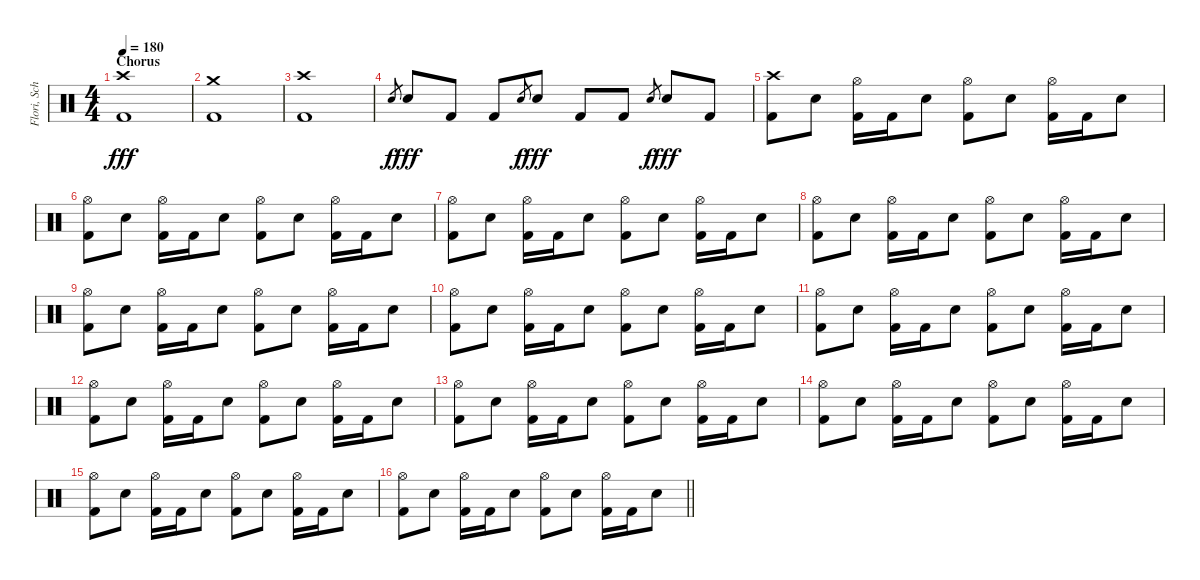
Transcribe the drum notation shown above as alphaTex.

\track ("Flori, Schlagzeug" "Flori, Sch") {instrument percussion}
\staff {score}
\articulation defaults
\ts (4 4)
\section ("" "Chorus")
\tempo 180
\clef neutral
\ks c
("Crash high (hit)" "Kick (hit) 2").1{dy fff} |
("Crash medium (hit)" "Kick (hit) 2").1 |
("Crash high (hit)" "Kick (hit) 2").1 |
"Electric Snare (hit)".8{gr dy f} "Electric Snare (hit)".8{dy fff} "Kick (hit) 2".8 "Kick (hit) 2".8 "Electric Snare (hit)".8{gr dy f} "Electric Snare (hit)".8{dy fff} "Kick (hit) 2".8 "Kick (hit) 2".8 "Electric Snare (hit)".8{gr dy f} "Electric Snare (hit)".8{dy fff} "Kick (hit) 2".8 |
("Crash high (hit)" "Kick (hit) 2").8 "Electric Snare (hit)".8 ("Hi-Hat (open)" "Kick (hit) 2").16 "Kick (hit) 2".16 "Electric Snare (hit)".8 ("Hi-Hat (open)" "Kick (hit) 2").8 "Electric Snare (hit)".8 ("Hi-Hat (open)" "Kick (hit) 2").16 "Kick (hit) 2".16 "Electric Snare (hit)".8 |
("Hi-Hat (open)" "Kick (hit) 2").8 "Electric Snare (hit)".8 ("Hi-Hat (open)" "Kick (hit) 2").16 "Kick (hit) 2".16 "Electric Snare (hit)".8 ("Hi-Hat (open)" "Kick (hit) 2").8 "Electric Snare (hit)".8 ("Hi-Hat (open)" "Kick (hit) 2").16 "Kick (hit) 2".16 "Electric Snare (hit)".8 |
("Hi-Hat (open)" "Kick (hit) 2").8 "Electric Snare (hit)".8 ("Hi-Hat (open)" "Kick (hit) 2").16 "Kick (hit) 2".16 "Electric Snare (hit)".8 ("Hi-Hat (open)" "Kick (hit) 2").8 "Electric Snare (hit)".8 ("Hi-Hat (open)" "Kick (hit) 2").16 "Kick (hit) 2".16 "Electric Snare (hit)".8 |
("Hi-Hat (open)" "Kick (hit) 2").8 "Electric Snare (hit)".8 ("Hi-Hat (open)" "Kick (hit) 2").16 "Kick (hit) 2".16 "Electric Snare (hit)".8 ("Hi-Hat (open)" "Kick (hit) 2").8 "Electric Snare (hit)".8 ("Hi-Hat (open)" "Kick (hit) 2").16 "Kick (hit) 2".16 "Electric Snare (hit)".8 |
("Hi-Hat (open)" "Kick (hit) 2").8 "Electric Snare (hit)".8 ("Hi-Hat (open)" "Kick (hit) 2").16 "Kick (hit) 2".16 "Electric Snare (hit)".8 ("Hi-Hat (open)" "Kick (hit) 2").8 "Electric Snare (hit)".8 ("Hi-Hat (open)" "Kick (hit) 2").16 "Kick (hit) 2".16 "Electric Snare (hit)".8 |
("Hi-Hat (open)" "Kick (hit) 2").8 "Electric Snare (hit)".8 ("Hi-Hat (open)" "Kick (hit) 2").16 "Kick (hit) 2".16 "Electric Snare (hit)".8 ("Hi-Hat (open)" "Kick (hit) 2").8 "Electric Snare (hit)".8 ("Hi-Hat (open)" "Kick (hit) 2").16 "Kick (hit) 2".16 "Electric Snare (hit)".8 |
("Hi-Hat (open)" "Kick (hit) 2").8 "Electric Snare (hit)".8 ("Hi-Hat (open)" "Kick (hit) 2").16 "Kick (hit) 2".16 "Electric Snare (hit)".8 ("Hi-Hat (open)" "Kick (hit) 2").8 "Electric Snare (hit)".8 ("Hi-Hat (open)" "Kick (hit) 2").16 "Kick (hit) 2".16 "Electric Snare (hit)".8 |
("Hi-Hat (open)" "Kick (hit) 2").8 "Electric Snare (hit)".8 ("Hi-Hat (open)" "Kick (hit) 2").16 "Kick (hit) 2".16 "Electric Snare (hit)".8 ("Hi-Hat (open)" "Kick (hit) 2").8 "Electric Snare (hit)".8 ("Hi-Hat (open)" "Kick (hit) 2").16 "Kick (hit) 2".16 "Electric Snare (hit)".8 |
("Hi-Hat (open)" "Kick (hit) 2").8 "Electric Snare (hit)".8 ("Hi-Hat (open)" "Kick (hit) 2").16 "Kick (hit) 2".16 "Electric Snare (hit)".8 ("Hi-Hat (open)" "Kick (hit) 2").8 "Electric Snare (hit)".8 ("Hi-Hat (open)" "Kick (hit) 2").16 "Kick (hit) 2".16 "Electric Snare (hit)".8 |
("Hi-Hat (open)" "Kick (hit) 2").8 "Electric Snare (hit)".8 ("Hi-Hat (open)" "Kick (hit) 2").16 "Kick (hit) 2".16 "Electric Snare (hit)".8 ("Hi-Hat (open)" "Kick (hit) 2").8 "Electric Snare (hit)".8 ("Hi-Hat (open)" "Kick (hit) 2").16 "Kick (hit) 2".16 "Electric Snare (hit)".8 |
("Hi-Hat (open)" "Kick (hit) 2").8 "Electric Snare (hit)".8 ("Hi-Hat (open)" "Kick (hit) 2").16 "Kick (hit) 2".16 "Electric Snare (hit)".8 ("Hi-Hat (open)" "Kick (hit) 2").8 "Electric Snare (hit)".8 ("Hi-Hat (open)" "Kick (hit) 2").16 "Kick (hit) 2".16 "Electric Snare (hit)".8 |
\barLineRight lightlight
("Hi-Hat (open)" "Kick (hit) 2").8 "Electric Snare (hit)".8 ("Hi-Hat (open)" "Kick (hit) 2").16 "Kick (hit) 2".16 "Electric Snare (hit)".8 ("Hi-Hat (open)" "Kick (hit) 2").8 "Electric Snare (hit)".8 ("Hi-Hat (open)" "Kick (hit) 2").16 "Kick (hit) 2".16 "Electric Snare (hit)".8
